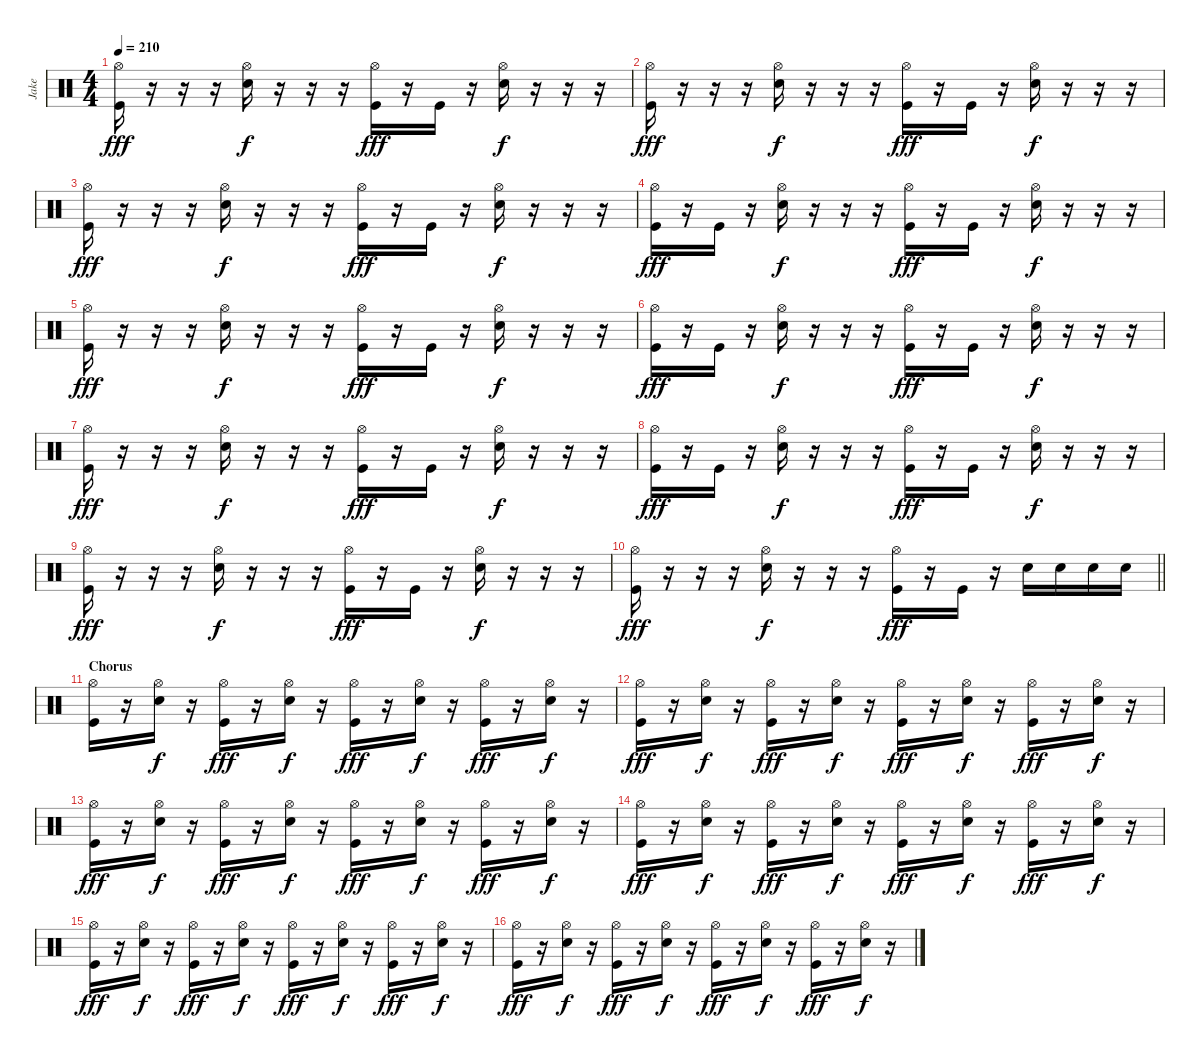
\track ("Jake" "Jake") {instrument percussion}
\staff {score}
\articulation defaults
\ts (4 4)
\tempo 210
\clef neutral
\ks c
("Hi-Hat (open)" "Kick (hit)").16{dy fff} r.16 r.16 r.16 ("Hi-Hat (open)" "Electric Snare (hit)").16{dy f} r.16 r.16 r.16 ("Hi-Hat (open)" "Kick (hit)").16{dy fff} r.16 "Kick (hit)".16 r.16 ("Hi-Hat (open)" "Electric Snare (hit)").16{dy f} r.16 r.16 r.16 |
("Hi-Hat (open)" "Kick (hit)").16{dy fff} r.16 r.16 r.16 ("Hi-Hat (open)" "Electric Snare (hit)").16{dy f} r.16 r.16 r.16 ("Hi-Hat (open)" "Kick (hit)").16{dy fff} r.16 "Kick (hit)".16 r.16 ("Hi-Hat (open)" "Electric Snare (hit)").16{dy f} r.16 r.16 r.16 |
("Hi-Hat (open)" "Kick (hit)").16{dy fff} r.16 r.16 r.16 ("Hi-Hat (open)" "Electric Snare (hit)").16{dy f} r.16 r.16 r.16 ("Hi-Hat (open)" "Kick (hit)").16{dy fff} r.16 "Kick (hit)".16 r.16 ("Hi-Hat (open)" "Electric Snare (hit)").16{dy f} r.16 r.16 r.16 |
("Hi-Hat (open)" "Kick (hit)").16{dy fff} r.16 "Kick (hit)".16 r.16 ("Hi-Hat (open)" "Electric Snare (hit)").16{dy f} r.16 r.16 r.16 ("Hi-Hat (open)" "Kick (hit)").16{dy fff} r.16 "Kick (hit)".16 r.16 ("Hi-Hat (open)" "Electric Snare (hit)").16{dy f} r.16 r.16 r.16 |
("Hi-Hat (open)" "Kick (hit)").16{dy fff} r.16 r.16 r.16 ("Hi-Hat (open)" "Electric Snare (hit)").16{dy f} r.16 r.16 r.16 ("Hi-Hat (open)" "Kick (hit)").16{dy fff} r.16 "Kick (hit)".16 r.16 ("Hi-Hat (open)" "Electric Snare (hit)").16{dy f} r.16 r.16 r.16 |
("Hi-Hat (open)" "Kick (hit)").16{dy fff} r.16 "Kick (hit)".16 r.16 ("Hi-Hat (open)" "Electric Snare (hit)").16{dy f} r.16 r.16 r.16 ("Hi-Hat (open)" "Kick (hit)").16{dy fff} r.16 "Kick (hit)".16 r.16 ("Hi-Hat (open)" "Electric Snare (hit)").16{dy f} r.16 r.16 r.16 |
("Hi-Hat (open)" "Kick (hit)").16{dy fff} r.16 r.16 r.16 ("Hi-Hat (open)" "Electric Snare (hit)").16{dy f} r.16 r.16 r.16 ("Hi-Hat (open)" "Kick (hit)").16{dy fff} r.16 "Kick (hit)".16 r.16 ("Hi-Hat (open)" "Electric Snare (hit)").16{dy f} r.16 r.16 r.16 |
("Hi-Hat (open)" "Kick (hit)").16{dy fff} r.16 "Kick (hit)".16 r.16 ("Hi-Hat (open)" "Electric Snare (hit)").16{dy f} r.16 r.16 r.16 ("Hi-Hat (open)" "Kick (hit)").16{dy fff} r.16 "Kick (hit)".16 r.16 ("Hi-Hat (open)" "Electric Snare (hit)").16{dy f} r.16 r.16 r.16 |
("Hi-Hat (open)" "Kick (hit)").16{dy fff} r.16 r.16 r.16 ("Hi-Hat (open)" "Electric Snare (hit)").16{dy f} r.16 r.16 r.16 ("Hi-Hat (open)" "Kick (hit)").16{dy fff} r.16 "Kick (hit)".16 r.16 ("Hi-Hat (open)" "Electric Snare (hit)").16{dy f} r.16 r.16 r.16 |
\barLineRight lightlight
("Hi-Hat (open)" "Kick (hit)").16{dy fff} r.16 r.16 r.16 ("Hi-Hat (open)" "Electric Snare (hit)").16{dy f} r.16 r.16 r.16 ("Hi-Hat (open)" "Kick (hit)").16{dy fff} r.16 "Kick (hit)".16 r.16 "Electric Snare (hit)".16 "Electric Snare (hit)".16 "Electric Snare (hit)".16 "Electric Snare (hit)".16 |
\section ("" "Chorus")
("Hi-Hat (open)" "Kick (hit)").16 r.16 ("Hi-Hat (open)" "Electric Snare (hit)").16{dy f} r.16 ("Hi-Hat (open)" "Kick (hit)").16{dy fff} r.16 ("Hi-Hat (open)" "Electric Snare (hit)").16{dy f} r.16 ("Hi-Hat (open)" "Kick (hit)").16{dy fff} r.16 ("Hi-Hat (open)" "Electric Snare (hit)").16{dy f} r.16 ("Hi-Hat (open)" "Kick (hit)").16{dy fff} r.16 ("Hi-Hat (open)" "Electric Snare (hit)").16{dy f} r.16 |
("Hi-Hat (open)" "Kick (hit)").16{dy fff} r.16 ("Hi-Hat (open)" "Electric Snare (hit)").16{dy f} r.16 ("Hi-Hat (open)" "Kick (hit)").16{dy fff} r.16 ("Hi-Hat (open)" "Electric Snare (hit)").16{dy f} r.16 ("Hi-Hat (open)" "Kick (hit)").16{dy fff} r.16 ("Hi-Hat (open)" "Electric Snare (hit)").16{dy f} r.16 ("Hi-Hat (open)" "Kick (hit)").16{dy fff} r.16 ("Hi-Hat (open)" "Electric Snare (hit)").16{dy f} r.16 |
("Hi-Hat (open)" "Kick (hit)").16{dy fff} r.16 ("Hi-Hat (open)" "Electric Snare (hit)").16{dy f} r.16 ("Hi-Hat (open)" "Kick (hit)").16{dy fff} r.16 ("Hi-Hat (open)" "Electric Snare (hit)").16{dy f} r.16 ("Hi-Hat (open)" "Kick (hit)").16{dy fff} r.16 ("Hi-Hat (open)" "Electric Snare (hit)").16{dy f} r.16 ("Hi-Hat (open)" "Kick (hit)").16{dy fff} r.16 ("Hi-Hat (open)" "Electric Snare (hit)").16{dy f} r.16 |
("Hi-Hat (open)" "Kick (hit)").16{dy fff} r.16 ("Hi-Hat (open)" "Electric Snare (hit)").16{dy f} r.16 ("Hi-Hat (open)" "Kick (hit)").16{dy fff} r.16 ("Hi-Hat (open)" "Electric Snare (hit)").16{dy f} r.16 ("Hi-Hat (open)" "Kick (hit)").16{dy fff} r.16 ("Hi-Hat (open)" "Electric Snare (hit)").16{dy f} r.16 ("Hi-Hat (open)" "Kick (hit)").16{dy fff} r.16 ("Hi-Hat (open)" "Electric Snare (hit)").16{dy f} r.16 |
("Hi-Hat (open)" "Kick (hit)").16{dy fff} r.16 ("Hi-Hat (open)" "Electric Snare (hit)").16{dy f} r.16 ("Hi-Hat (open)" "Kick (hit)").16{dy fff} r.16 ("Hi-Hat (open)" "Electric Snare (hit)").16{dy f} r.16 ("Hi-Hat (open)" "Kick (hit)").16{dy fff} r.16 ("Hi-Hat (open)" "Electric Snare (hit)").16{dy f} r.16 ("Hi-Hat (open)" "Kick (hit)").16{dy fff} r.16 ("Hi-Hat (open)" "Electric Snare (hit)").16{dy f} r.16 |
("Hi-Hat (open)" "Kick (hit)").16{dy fff} r.16 ("Hi-Hat (open)" "Electric Snare (hit)").16{dy f} r.16 ("Hi-Hat (open)" "Kick (hit)").16{dy fff} r.16 ("Hi-Hat (open)" "Electric Snare (hit)").16{dy f} r.16 ("Hi-Hat (open)" "Kick (hit)").16{dy fff} r.16 ("Hi-Hat (open)" "Electric Snare (hit)").16{dy f} r.16 ("Hi-Hat (open)" "Kick (hit)").16{dy fff} r.16 ("Hi-Hat (open)" "Electric Snare (hit)").16{dy f} r.16
